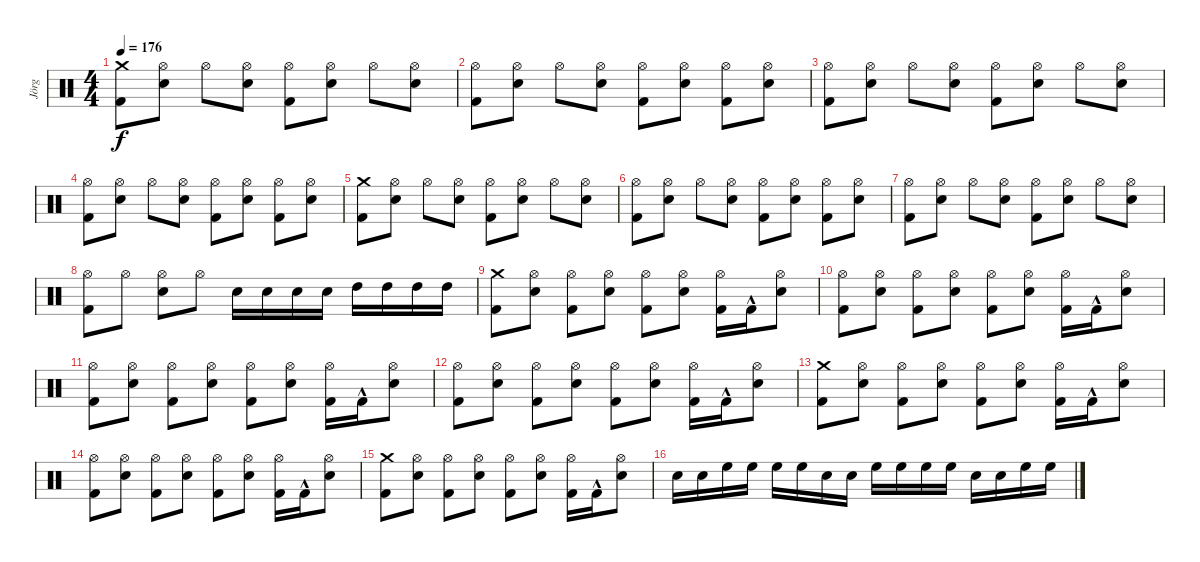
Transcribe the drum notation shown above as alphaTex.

\track ("Jörg" "Jörg") {instrument percussion}
\staff {score}
\articulation defaults
\ts (4 4)
\tempo 176
\clef neutral
\ks c
("Kick (hit) 2" "Crash medium (hit)").8{dy f} ("Snare (hit) 2" "Hi-Hat (open)").8 "Hi-Hat (open)".8 ("Snare (hit) 2" "Hi-Hat (open)").8 ("Kick (hit) 2" "Hi-Hat (open)").8 ("Snare (hit) 2" "Hi-Hat (open)").8 "Hi-Hat (open)".8 ("Snare (hit) 2" "Hi-Hat (open)").8 |
("Hi-Hat (open)" "Kick (hit) 2").8 ("Snare (hit) 2" "Hi-Hat (open)").8 "Hi-Hat (open)".8 ("Snare (hit) 2" "Hi-Hat (open)").8 ("Kick (hit) 2" "Hi-Hat (open)").8 ("Snare (hit) 2" "Hi-Hat (open)").8 ("Kick (hit) 2" "Hi-Hat (open)").8 ("Snare (hit) 2" "Hi-Hat (open)").8 |
("Hi-Hat (open)" "Kick (hit) 2").8 ("Snare (hit) 2" "Hi-Hat (open)").8 "Hi-Hat (open)".8 ("Snare (hit) 2" "Hi-Hat (open)").8 ("Kick (hit) 2" "Hi-Hat (open)").8 ("Snare (hit) 2" "Hi-Hat (open)").8 "Hi-Hat (open)".8 ("Snare (hit) 2" "Hi-Hat (open)").8 |
("Hi-Hat (open)" "Kick (hit) 2").8 ("Snare (hit) 2" "Hi-Hat (open)").8 "Hi-Hat (open)".8 ("Snare (hit) 2" "Hi-Hat (open)").8 ("Kick (hit) 2" "Hi-Hat (open)").8 ("Snare (hit) 2" "Hi-Hat (open)").8 ("Kick (hit) 2" "Hi-Hat (open)").8 ("Snare (hit) 2" "Hi-Hat (open)").8 |
("Kick (hit) 2" "Crash medium (hit)").8 ("Snare (hit) 2" "Hi-Hat (open)").8 "Hi-Hat (open)".8 ("Snare (hit) 2" "Hi-Hat (open)").8 ("Kick (hit) 2" "Hi-Hat (open)").8 ("Snare (hit) 2" "Hi-Hat (open)").8 "Hi-Hat (open)".8 ("Snare (hit) 2" "Hi-Hat (open)").8 |
("Hi-Hat (open)" "Kick (hit) 2").8 ("Snare (hit) 2" "Hi-Hat (open)").8 "Hi-Hat (open)".8 ("Snare (hit) 2" "Hi-Hat (open)").8 ("Kick (hit) 2" "Hi-Hat (open)").8 ("Snare (hit) 2" "Hi-Hat (open)").8 ("Kick (hit) 2" "Hi-Hat (open)").8 ("Snare (hit) 2" "Hi-Hat (open)").8 |
("Hi-Hat (open)" "Kick (hit) 2").8 ("Snare (hit) 2" "Hi-Hat (open)").8 "Hi-Hat (open)".8 ("Snare (hit) 2" "Hi-Hat (open)").8 ("Kick (hit) 2" "Hi-Hat (open)").8 ("Snare (hit) 2" "Hi-Hat (open)").8 "Hi-Hat (open)".8 ("Snare (hit) 2" "Hi-Hat (open)").8 |
("Kick (hit) 2" "Hi-Hat (open)").8 "Hi-Hat (open)".8 ("Snare (hit) 2" "Hi-Hat (open)").8 "Hi-Hat (open)".8 "Snare (hit) 2".16 "Snare (hit) 2".16 "Snare (hit) 2".16 "Snare (hit) 2".16 "High Tom (hit)".16 "High Tom (hit)".16 "High Tom (hit)".16 "High Tom (hit)".16 |
("Kick (hit) 2" "Crash medium (hit)").8 ("Snare (hit) 2" "Hi-Hat (open)").8 ("Kick (hit) 2" "Hi-Hat (open)").8 ("Snare (hit) 2" "Hi-Hat (open)").8 ("Kick (hit) 2" "Hi-Hat (open)").8 ("Snare (hit) 2" "Hi-Hat (open)").8 ("Kick (hit) 2" "Hi-Hat (open)").16 "Kick (hit) 2"{hac}.16 ("Snare (hit) 2" "Hi-Hat (open)").8 |
("Hi-Hat (open)" "Kick (hit) 2").8 ("Snare (hit) 2" "Hi-Hat (open)").8 ("Kick (hit) 2" "Hi-Hat (open)").8 ("Snare (hit) 2" "Hi-Hat (open)").8 ("Kick (hit) 2" "Hi-Hat (open)").8 ("Snare (hit) 2" "Hi-Hat (open)").8 ("Kick (hit) 2" "Hi-Hat (open)").16 "Kick (hit) 2"{hac}.16 ("Snare (hit) 2" "Hi-Hat (open)").8 |
("Hi-Hat (open)" "Kick (hit) 2").8 ("Snare (hit) 2" "Hi-Hat (open)").8 ("Kick (hit) 2" "Hi-Hat (open)").8 ("Snare (hit) 2" "Hi-Hat (open)").8 ("Kick (hit) 2" "Hi-Hat (open)").8 ("Snare (hit) 2" "Hi-Hat (open)").8 ("Kick (hit) 2" "Hi-Hat (open)").16 "Kick (hit) 2"{hac}.16 ("Snare (hit) 2" "Hi-Hat (open)").8 |
("Hi-Hat (open)" "Kick (hit) 2").8 ("Snare (hit) 2" "Hi-Hat (open)").8 ("Kick (hit) 2" "Hi-Hat (open)").8 ("Snare (hit) 2" "Hi-Hat (open)").8 ("Kick (hit) 2" "Hi-Hat (open)").8 ("Snare (hit) 2" "Hi-Hat (open)").8 ("Kick (hit) 2" "Hi-Hat (open)").16 "Kick (hit) 2"{hac}.16 ("Snare (hit) 2" "Hi-Hat (open)").8 |
("Kick (hit) 2" "Crash medium (hit)").8 ("Snare (hit) 2" "Hi-Hat (open)").8 ("Kick (hit) 2" "Hi-Hat (open)").8 ("Snare (hit) 2" "Hi-Hat (open)").8 ("Kick (hit) 2" "Hi-Hat (open)").8 ("Snare (hit) 2" "Hi-Hat (open)").8 ("Kick (hit) 2" "Hi-Hat (open)").16 "Kick (hit) 2"{hac}.16 ("Snare (hit) 2" "Hi-Hat (open)").8 |
("Hi-Hat (open)" "Kick (hit) 2").8 ("Snare (hit) 2" "Hi-Hat (open)").8 ("Kick (hit) 2" "Hi-Hat (open)").8 ("Snare (hit) 2" "Hi-Hat (open)").8 ("Kick (hit) 2" "Hi-Hat (open)").8 ("Snare (hit) 2" "Hi-Hat (open)").8 ("Kick (hit) 2" "Hi-Hat (open)").16 "Kick (hit) 2"{hac}.16 ("Snare (hit) 2" "Hi-Hat (open)").8 |
("Kick (hit) 2" "Crash medium (hit)").8 ("Snare (hit) 2" "Hi-Hat (open)").8 ("Kick (hit) 2" "Hi-Hat (open)").8 ("Snare (hit) 2" "Hi-Hat (open)").8 ("Kick (hit) 2" "Hi-Hat (open)").8 ("Snare (hit) 2" "Hi-Hat (open)").8 ("Kick (hit) 2" "Hi-Hat (open)").16 "Kick (hit) 2"{hac}.16 ("Snare (hit) 2" "Hi-Hat (open)").8 |
"Snare (hit) 2".16 "Snare (hit) 2".16 "High Floor Tom (hit)".16 "High Floor Tom (hit)".16 "High Floor Tom (hit)".16 "High Floor Tom (hit)".16 "Snare (hit) 2".16 "Snare (hit) 2".16 "High Floor Tom (hit)".16 "High Floor Tom (hit)".16 "High Floor Tom (hit)".16 "High Floor Tom (hit)".16 "Snare (hit) 2".16 "Snare (hit) 2".16 "High Floor Tom (hit)".16 "High Floor Tom (hit)".16
